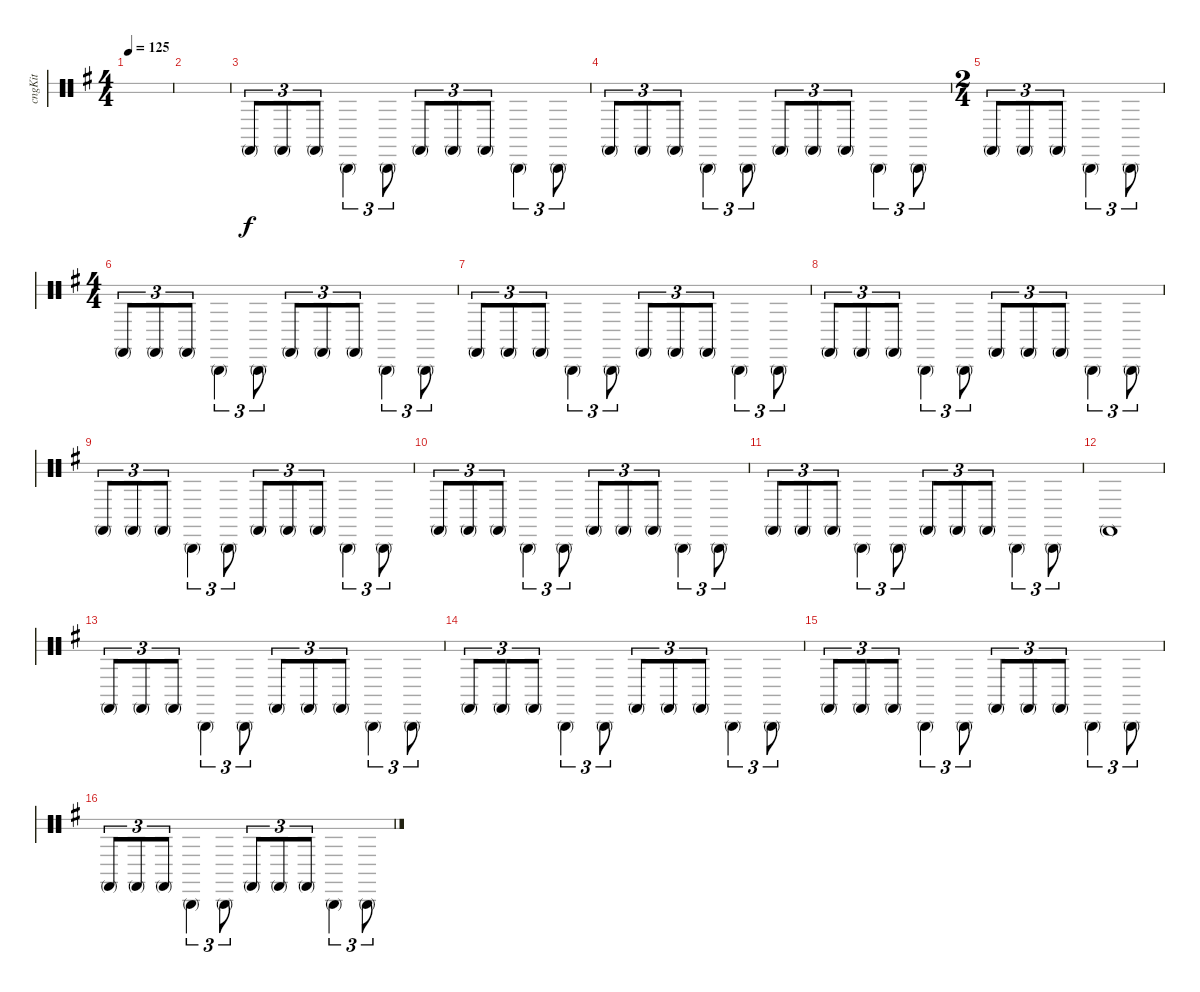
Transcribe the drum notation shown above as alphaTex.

\defaultSystemsLayout 4
\bracketExtendMode groupsimilarinstruments
\otherSystemsTrackNameOrientation horizontal
\track ("Congas" "cngKit") {instrument percussion}
\staff {score 2}
\articulation defaults
\ts (4 4)
\tempo 125
\clef neutral
\scale
0.333333
\ks g
|
\scale
0.333333 |
\scale
0.262911 "Conga low (mute)"{acc forcenatural}.8{tu (3 2) beam Up} "Conga low (mute)"{acc forcenatural}.8{tu (3 2) beam Up} "Conga low (mute)"{acc forcenatural}.8{tu (3 2) beam Up} "Conga high (mute)"{acc forcenatural}.4{tu (3 2) beam Down} "Conga high (mute)"{acc forcenatural}.8{tu (3 2) beam Down} "Conga low (mute)"{acc forcenatural}.8{tu (3 2) beam Up} "Conga low (mute)"{acc forcenatural}.8{tu (3 2) beam Up} "Conga low (mute)"{acc forcenatural}.8{tu (3 2) beam Up} "Conga high (mute)"{acc forcenatural}.4{tu (3 2) beam Down} "Conga high (mute)"{acc forcenatural}.8{tu (3 2) beam Down} |
\scale
0.262911 "Conga low (mute)"{acc forcenatural}.8{tu (3 2) beam Up} "Conga low (mute)"{acc forcenatural}.8{tu (3 2) beam Up} "Conga low (mute)"{acc forcenatural}.8{tu (3 2) beam Up} "Conga high (mute)"{acc forcenatural}.4{tu (3 2) beam Down} "Conga high (mute)"{acc forcenatural}.8{tu (3 2) beam Down} "Conga low (mute)"{acc forcenatural}.8{tu (3 2) beam Up} "Conga low (mute)"{acc forcenatural}.8{tu (3 2) beam Up} "Conga low (mute)"{acc forcenatural}.8{tu (3 2) beam Up} "Conga high (mute)"{acc forcenatural}.4{tu (3 2) beam Down} "Conga high (mute)"{acc forcenatural}.8{tu (3 2) beam Down} |
\ts (2 4)
\scale
0.474178 "Conga low (mute)"{acc forcenatural}.8{tu (3 2) beam Up} "Conga low (mute)"{acc forcenatural}.8{tu (3 2) beam Up} "Conga low (mute)"{acc forcenatural}.8{tu (3 2) beam Up} "Conga high (mute)"{acc forcenatural}.4{tu (3 2) beam Down} "Conga high (mute)"{acc forcenatural}.8{tu (3 2) beam Down} |
\ts (4 4)
\scale
0.474178 "Conga low (mute)"{acc forcenatural}.8{tu (3 2) beam Up} "Conga low (mute)"{acc forcenatural}.8{tu (3 2) beam Up} "Conga low (mute)"{acc forcenatural}.8{tu (3 2) beam Up} "Conga high (mute)"{acc forcenatural}.4{tu (3 2) beam Down} "Conga high (mute)"{acc forcenatural}.8{tu (3 2) beam Down} "Conga low (mute)"{acc forcenatural}.8{tu (3 2) beam Up} "Conga low (mute)"{acc forcenatural}.8{tu (3 2) beam Up} "Conga low (mute)"{acc forcenatural}.8{tu (3 2) beam Up} "Conga high (mute)"{acc forcenatural}.4{tu (3 2) beam Down} "Conga high (mute)"{acc forcenatural}.8{tu (3 2) beam Down} |
\scale
0.262911 "Conga low (mute)"{acc forcenatural}.8{tu (3 2) beam Up} "Conga low (mute)"{acc forcenatural}.8{tu (3 2) beam Up} "Conga low (mute)"{acc forcenatural}.8{tu (3 2) beam Up} "Conga high (mute)"{acc forcenatural}.4{tu (3 2) beam Down} "Conga high (mute)"{acc forcenatural}.8{tu (3 2) beam Down} "Conga low (mute)"{acc forcenatural}.8{tu (3 2) beam Up} "Conga low (mute)"{acc forcenatural}.8{tu (3 2) beam Up} "Conga low (mute)"{acc forcenatural}.8{tu (3 2) beam Up} "Conga high (mute)"{acc forcenatural}.4{tu (3 2) beam Down} "Conga high (mute)"{acc forcenatural}.8{tu (3 2) beam Down} |
\scale
0.262911 "Conga low (mute)"{acc forcenatural}.8{tu (3 2) beam Up} "Conga low (mute)"{acc forcenatural}.8{tu (3 2) beam Up} "Conga low (mute)"{acc forcenatural}.8{tu (3 2) beam Up} "Conga high (mute)"{acc forcenatural}.4{tu (3 2) beam Down} "Conga high (mute)"{acc forcenatural}.8{tu (3 2) beam Down} "Conga low (mute)"{acc forcenatural}.8{tu (3 2) beam Up} "Conga low (mute)"{acc forcenatural}.8{tu (3 2) beam Up} "Conga low (mute)"{acc forcenatural}.8{tu (3 2) beam Up} "Conga high (mute)"{acc forcenatural}.4{tu (3 2) beam Down} "Conga high (mute)"{acc forcenatural}.8{tu (3 2) beam Down} |
\scale
0.333333 "Conga low (mute)"{acc forcenatural}.8{tu (3 2) beam Up} "Conga low (mute)"{acc forcenatural}.8{tu (3 2) beam Up} "Conga low (mute)"{acc forcenatural}.8{tu (3 2) beam Up} "Conga high (mute)"{acc forcenatural}.4{tu (3 2) beam Down} "Conga high (mute)"{acc forcenatural}.8{tu (3 2) beam Down} "Conga low (mute)"{acc forcenatural}.8{tu (3 2) beam Up} "Conga low (mute)"{acc forcenatural}.8{tu (3 2) beam Up} "Conga low (mute)"{acc forcenatural}.8{tu (3 2) beam Up} "Conga high (mute)"{acc forcenatural}.4{tu (3 2) beam Down} "Conga high (mute)"{acc forcenatural}.8{tu (3 2) beam Down} |
\scale
0.333333 "Conga low (mute)"{acc forcenatural}.8{tu (3 2) beam Up} "Conga low (mute)"{acc forcenatural}.8{tu (3 2) beam Up} "Conga low (mute)"{acc forcenatural}.8{tu (3 2) beam Up} "Conga high (mute)"{acc forcenatural}.4{tu (3 2) beam Down} "Conga high (mute)"{acc forcenatural}.8{tu (3 2) beam Down} "Conga low (mute)"{acc forcenatural}.8{tu (3 2) beam Up} "Conga low (mute)"{acc forcenatural}.8{tu (3 2) beam Up} "Conga low (mute)"{acc forcenatural}.8{tu (3 2) beam Up} "Conga high (mute)"{acc forcenatural}.4{tu (3 2) beam Down} "Conga high (mute)"{acc forcenatural}.8{tu (3 2) beam Down} |
\scale
0.333333 "Conga low (mute)"{acc forcenatural}.8{tu (3 2) beam Up} "Conga low (mute)"{acc forcenatural}.8{tu (3 2) beam Up} "Conga low (mute)"{acc forcenatural}.8{tu (3 2) beam Up} "Conga high (mute)"{acc forcenatural}.4{tu (3 2) beam Down} "Conga high (mute)"{acc forcenatural}.8{tu (3 2) beam Down} "Conga low (mute)"{acc forcenatural}.8{tu (3 2) beam Up} "Conga low (mute)"{acc forcenatural}.8{tu (3 2) beam Up} "Conga low (mute)"{acc forcenatural}.8{tu (3 2) beam Up} "Conga high (mute)"{acc forcenatural}.4{tu (3 2) beam Down} "Conga high (mute)"{acc forcenatural}.8{tu (3 2) beam Down} |
\scale
0.333333 "Conga low (mute)"{acc forcenatural}.1{beam Up} |
\scale
0.333333 "Conga low (mute)"{acc forcenatural}.8{tu (3 2) beam Up} "Conga low (mute)"{acc forcenatural}.8{tu (3 2) beam Up} "Conga low (mute)"{acc forcenatural}.8{tu (3 2) beam Up} "Conga high (mute)"{acc forcenatural}.4{tu (3 2) beam Down} "Conga high (mute)"{acc forcenatural}.8{tu (3 2) beam Down} "Conga low (mute)"{acc forcenatural}.8{tu (3 2) beam Up} "Conga low (mute)"{acc forcenatural}.8{tu (3 2) beam Up} "Conga low (mute)"{acc forcenatural}.8{tu (3 2) beam Up} "Conga high (mute)"{acc forcenatural}.4{tu (3 2) beam Down} "Conga high (mute)"{acc forcenatural}.8{tu (3 2) beam Down} |
\scale
0.333333 "Conga low (mute)"{acc forcenatural}.8{tu (3 2) beam Up} "Conga low (mute)"{acc forcenatural}.8{tu (3 2) beam Up} "Conga low (mute)"{acc forcenatural}.8{tu (3 2) beam Up} "Conga high (mute)"{acc forcenatural}.4{tu (3 2) beam Down} "Conga high (mute)"{acc forcenatural}.8{tu (3 2) beam Down} "Conga low (mute)"{acc forcenatural}.8{tu (3 2) beam Up} "Conga low (mute)"{acc forcenatural}.8{tu (3 2) beam Up} "Conga low (mute)"{acc forcenatural}.8{tu (3 2) beam Up} "Conga high (mute)"{acc forcenatural}.4{tu (3 2) beam Down} "Conga high (mute)"{acc forcenatural}.8{tu (3 2) beam Down} |
\scale
0.333333 "Conga low (mute)"{acc forcenatural}.8{tu (3 2) beam Up} "Conga low (mute)"{acc forcenatural}.8{tu (3 2) beam Up} "Conga low (mute)"{acc forcenatural}.8{tu (3 2) beam Up} "Conga high (mute)"{acc forcenatural}.4{tu (3 2) beam Down} "Conga high (mute)"{acc forcenatural}.8{tu (3 2) beam Down} "Conga low (mute)"{acc forcenatural}.8{tu (3 2) beam Up} "Conga low (mute)"{acc forcenatural}.8{tu (3 2) beam Up} "Conga low (mute)"{acc forcenatural}.8{tu (3 2) beam Up} "Conga high (mute)"{acc forcenatural}.4{tu (3 2) beam Down} "Conga high (mute)"{acc forcenatural}.8{tu (3 2) beam Down} |
\scale
0.333333 "Conga low (mute)"{acc forcenatural}.8{tu (3 2) beam Up} "Conga low (mute)"{acc forcenatural}.8{tu (3 2) beam Up} "Conga low (mute)"{acc forcenatural}.8{tu (3 2) beam Up} "Conga high (mute)"{acc forcenatural}.4{tu (3 2) beam Down} "Conga high (mute)"{acc forcenatural}.8{tu (3 2) beam Down} "Conga low (mute)"{acc forcenatural}.8{tu (3 2) beam Up} "Conga low (mute)"{acc forcenatural}.8{tu (3 2) beam Up} "Conga low (mute)"{acc forcenatural}.8{tu (3 2) beam Up} "Conga high (mute)"{acc forcenatural}.4{tu (3 2) beam Down} "Conga high (mute)"{acc forcenatural}.8{tu (3 2) beam Down}
